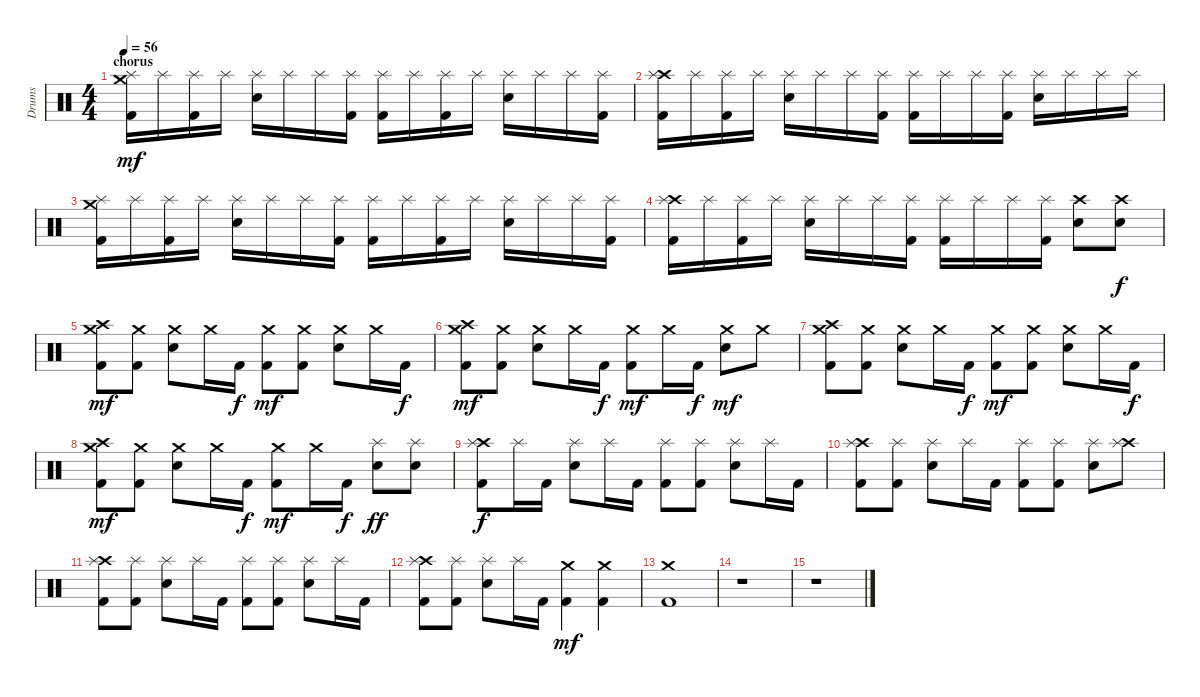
\track ("Drums" "Drums") {instrument percussion}
\staff {score}
\articulation defaults
\ts (4 4)
\section ("" "chorus")
\tempo 56
\clef neutral
\ks c
("Crash medium (hit)" "Splash (hit)" "Kick (hit) 2").16{dy mf} "Splash (hit)".16 ("Splash (hit)" "Kick (hit) 2").16 "Splash (hit)".16 ("Splash (hit)" "Snare (hit) 2").16 "Splash (hit)".16 "Splash (hit)".16 ("Splash (hit)" "Kick (hit) 2").16 ("Splash (hit)" "Kick (hit) 2").16 "Splash (hit)".16 ("Splash (hit)" "Kick (hit) 2").16 "Splash (hit)".16 ("Splash (hit)" "Snare (hit) 2").16 "Splash (hit)".16 "Splash (hit)".16 ("Splash (hit)" "Kick (hit) 2").16 |
("Crash high (hit)" "Splash (hit)" "Kick (hit) 2").16 "Splash (hit)".16 ("Splash (hit)" "Kick (hit) 2").16 "Splash (hit)".16 ("Splash (hit)" "Snare (hit) 2").16 "Splash (hit)".16 "Splash (hit)".16 ("Splash (hit)" "Kick (hit) 2").16 ("Splash (hit)" "Kick (hit) 2").16 "Splash (hit)".16 "Splash (hit)".16 ("Splash (hit)" "Kick (hit) 2").16 ("Splash (hit)" "Snare (hit) 2").16 "Splash (hit)".16 "Splash (hit)".16 "Splash (hit)".16 |
("Crash medium (hit)" "Splash (hit)" "Kick (hit) 2").16 "Splash (hit)".16 ("Splash (hit)" "Kick (hit) 2").16 "Splash (hit)".16 ("Splash (hit)" "Snare (hit) 2").16 "Splash (hit)".16 "Splash (hit)".16 ("Splash (hit)" "Kick (hit) 2").16 ("Splash (hit)" "Kick (hit) 2").16 "Splash (hit)".16 ("Splash (hit)" "Kick (hit) 2").16 "Splash (hit)".16 ("Splash (hit)" "Snare (hit) 2").16 "Splash (hit)".16 "Splash (hit)".16 ("Splash (hit)" "Kick (hit) 2").16 |
("Crash high (hit)" "Splash (hit)" "Kick (hit) 2").16 "Splash (hit)".16 ("Splash (hit)" "Kick (hit) 2").16 "Splash (hit)".16 ("Splash (hit)" "Snare (hit) 2").16 "Splash (hit)".16 "Splash (hit)".16 ("Splash (hit)" "Kick (hit) 2").16 ("Splash (hit)" "Kick (hit) 2").16 "Splash (hit)".16 "Splash (hit)".16 ("Splash (hit)" "Kick (hit) 2").16 ("Crash high (hit)" "Snare (hit) 2").8 ("Crash high (hit)" "Snare (hit) 2").8{dy f} |
("Crash high (hit)" "Crash medium (hit)" "Kick (hit) 2").8{dy mf} ("Crash medium (hit)" "Kick (hit) 2").8 ("Crash medium (hit)" "Snare (hit) 2").8 "Crash medium (hit)".16 "Kick (hit) 2".16{dy f} ("Crash medium (hit)" "Kick (hit) 2").8{dy mf} ("Crash medium (hit)" "Kick (hit) 2").8 ("Crash medium (hit)" "Snare (hit) 2").8 "Crash medium (hit)".16 "Kick (hit) 2".16{dy f} |
("Crash high (hit)" "Crash medium (hit)" "Kick (hit) 2").8{dy mf} ("Crash medium (hit)" "Kick (hit) 2").8 ("Crash medium (hit)" "Snare (hit) 2").8 "Crash medium (hit)".16 "Kick (hit) 2".16{dy f} ("Crash medium (hit)" "Kick (hit) 2").8{dy mf} "Crash medium (hit)".16 "Kick (hit) 2".16{dy f} ("Crash medium (hit)" "Snare (hit) 2").8{dy mf} "Crash medium (hit)".8 |
("Crash high (hit)" "Crash medium (hit)" "Kick (hit) 2").8 ("Crash medium (hit)" "Kick (hit) 2").8 ("Crash medium (hit)" "Snare (hit) 2").8 "Crash medium (hit)".16 "Kick (hit) 2".16{dy f} ("Crash medium (hit)" "Kick (hit) 2").8{dy mf} ("Crash medium (hit)" "Kick (hit) 2").8 ("Crash medium (hit)" "Snare (hit) 2").8 "Crash medium (hit)".16 "Kick (hit) 2".16{dy f} |
("Crash high (hit)" "Crash medium (hit)" "Kick (hit) 2").8{dy mf} ("Crash medium (hit)" "Kick (hit) 2").8 ("Crash medium (hit)" "Snare (hit) 2").8 "Crash medium (hit)".16 "Kick (hit) 2".16{dy f} ("Crash medium (hit)" "Kick (hit) 2").8{dy mf} "Crash medium (hit)".16 "Kick (hit) 2".16{dy f} ("Splash (hit)" "Snare (hit) 2").8{dy ff} ("Splash (hit)" "Snare (hit) 2").8 |
("Crash high (hit)" "Splash (hit)" "Kick (hit) 2").8{dy f} "Splash (hit)".16 "Kick (hit) 2".16 ("Splash (hit)" "Snare (hit) 2").8 "Splash (hit)".16 "Kick (hit) 2".16 ("Splash (hit)" "Kick (hit) 2").8 ("Splash (hit)" "Kick (hit) 2").8 ("Splash (hit)" "Snare (hit) 2").8 "Splash (hit)".16 "Kick (hit) 2".16 |
("Crash high (hit)" "Splash (hit)" "Kick (hit) 2").8 ("Splash (hit)" "Kick (hit) 2").8 ("Splash (hit)" "Snare (hit) 2").8 "Splash (hit)".16 "Kick (hit) 2".16 ("Splash (hit)" "Kick (hit) 2").8 ("Splash (hit)" "Kick (hit) 2").8 ("Splash (hit)" "Snare (hit) 2").8 ("Crash high (hit)" "Splash (hit)").8 |
("Crash high (hit)" "Splash (hit)" "Kick (hit) 2").8 ("Splash (hit)" "Kick (hit) 2").8 ("Splash (hit)" "Snare (hit) 2").8 "Splash (hit)".16 "Kick (hit) 2".16 ("Splash (hit)" "Kick (hit) 2").8 ("Splash (hit)" "Kick (hit) 2").8 ("Splash (hit)" "Snare (hit) 2").8 "Splash (hit)".16 "Kick (hit) 2".16 |
("Crash high (hit)" "Splash (hit)" "Kick (hit) 2").8 ("Splash (hit)" "Kick (hit) 2").8 ("Splash (hit)" "Snare (hit) 2").8 "Splash (hit)".16 "Kick (hit) 2".16 ("Crash medium (hit)" "Kick (hit) 2").4{dy mf} ("Crash medium (hit)" "Kick (hit) 2").4 |
("Crash medium (hit)" "Kick (hit) 2").1 |
r.1 |
r.1
